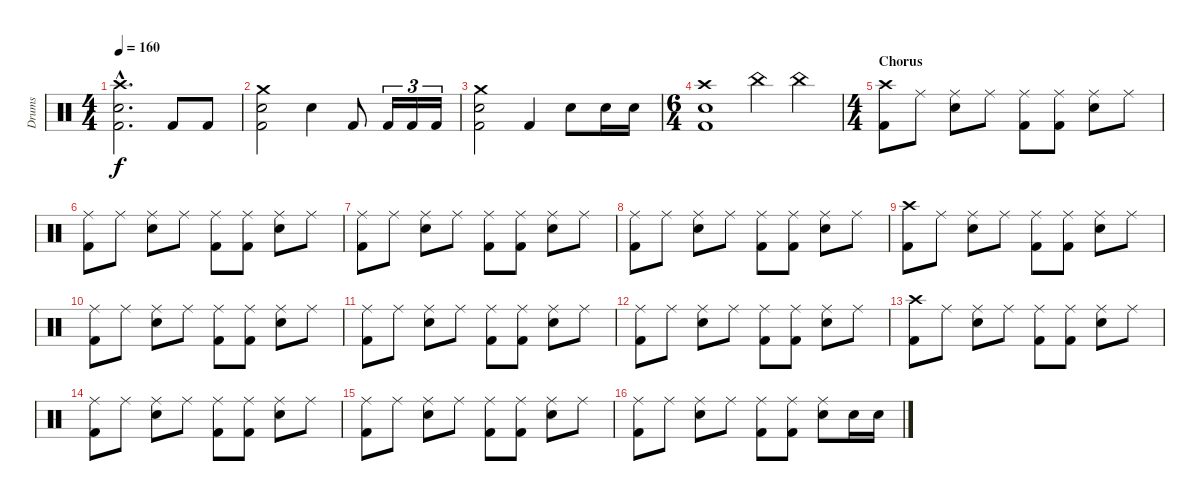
\track ("Drums" "Drums") {instrument percussion}
\staff {score}
\articulation defaults
\ts (4 4)
\tempo 160
\clef neutral
\ks c
("Crash high (hit)"{hac} "Kick (hit) 2"{hac} "Electric Snare (hit)"{hac}).2{d dy f} "Kick (hit) 2".8 "Kick (hit) 2".8 |
("Crash medium (hit)" "Kick (hit) 2" "Electric Snare (hit)").2 "Electric Snare (hit)".4 "Kick (hit) 2".8 "Kick (hit) 2".16{tu (3 2)} "Kick (hit) 2".16{tu (3 2)} "Kick (hit) 2".16{tu (3 2)} |
("Crash medium (hit)" "Kick (hit) 2" "Electric Snare (hit)").2 "Kick (hit) 2".4 "Electric Snare (hit)".8 "Electric Snare (hit)".16 "Electric Snare (hit)".16 |
\ts (6 4)
("Crash high (hit)" "Kick (hit) 2" "Electric Snare (hit)").1 "China (hit)".4 "China (hit)".4 |
\ts (4 4)
\section ("" "Chorus")
("Crash high (hit)" "Kick (hit) 2").8 "Ride (middle)".8 ("Ride (middle)" "Electric Snare (hit)").8 "Ride (middle)".8 ("Ride (middle)" "Kick (hit) 2").8 ("Ride (middle)" "Kick (hit) 2").8 ("Ride (middle)" "Electric Snare (hit)").8 "Ride (middle)".8 |
("Ride (middle)" "Kick (hit) 2").8 "Ride (middle)".8 ("Ride (middle)" "Electric Snare (hit)").8 "Ride (middle)".8 ("Ride (middle)" "Kick (hit) 2").8 ("Ride (middle)" "Kick (hit) 2").8 ("Ride (middle)" "Electric Snare (hit)").8 "Ride (middle)".8 |
("Ride (middle)" "Kick (hit) 2").8 "Ride (middle)".8 ("Ride (middle)" "Electric Snare (hit)").8 "Ride (middle)".8 ("Ride (middle)" "Kick (hit) 2").8 ("Ride (middle)" "Kick (hit) 2").8 ("Ride (middle)" "Electric Snare (hit)").8 "Ride (middle)".8 |
("Ride (middle)" "Kick (hit) 2").8 "Ride (middle)".8 ("Ride (middle)" "Electric Snare (hit)").8 "Ride (middle)".8 ("Ride (middle)" "Kick (hit) 2").8 ("Ride (middle)" "Kick (hit) 2").8 ("Ride (middle)" "Electric Snare (hit)").8 "Ride (middle)".8 |
("Crash high (hit)" "Kick (hit) 2").8 "Ride (middle)".8 ("Ride (middle)" "Electric Snare (hit)").8 "Ride (middle)".8 ("Ride (middle)" "Kick (hit) 2").8 ("Ride (middle)" "Kick (hit) 2").8 ("Ride (middle)" "Electric Snare (hit)").8 "Ride (middle)".8 |
("Ride (middle)" "Kick (hit) 2").8 "Ride (middle)".8 ("Ride (middle)" "Electric Snare (hit)").8 "Ride (middle)".8 ("Ride (middle)" "Kick (hit) 2").8 ("Ride (middle)" "Kick (hit) 2").8 ("Ride (middle)" "Electric Snare (hit)").8 "Ride (middle)".8 |
("Ride (middle)" "Kick (hit) 2").8 "Ride (middle)".8 ("Ride (middle)" "Electric Snare (hit)").8 "Ride (middle)".8 ("Ride (middle)" "Kick (hit) 2").8 ("Ride (middle)" "Kick (hit) 2").8 ("Ride (middle)" "Electric Snare (hit)").8 "Ride (middle)".8 |
("Ride (middle)" "Kick (hit) 2").8 "Ride (middle)".8 ("Ride (middle)" "Electric Snare (hit)").8 "Ride (middle)".8 ("Ride (middle)" "Kick (hit) 2").8 ("Ride (middle)" "Kick (hit) 2").8 ("Ride (middle)" "Electric Snare (hit)").8 "Ride (middle)".8 |
("Crash high (hit)" "Kick (hit) 2").8 "Ride (middle)".8 ("Ride (middle)" "Electric Snare (hit)").8 "Ride (middle)".8 ("Ride (middle)" "Kick (hit) 2").8 ("Ride (middle)" "Kick (hit) 2").8 ("Ride (middle)" "Electric Snare (hit)").8 "Ride (middle)".8 |
("Ride (middle)" "Kick (hit) 2").8 "Ride (middle)".8 ("Ride (middle)" "Electric Snare (hit)").8 "Ride (middle)".8 ("Ride (middle)" "Kick (hit) 2").8 ("Ride (middle)" "Kick (hit) 2").8 ("Ride (middle)" "Electric Snare (hit)").8 "Ride (middle)".8 |
("Ride (middle)" "Kick (hit) 2").8 "Ride (middle)".8 ("Ride (middle)" "Electric Snare (hit)").8 "Ride (middle)".8 ("Ride (middle)" "Kick (hit) 2").8 ("Ride (middle)" "Kick (hit) 2").8 ("Ride (middle)" "Electric Snare (hit)").8 "Ride (middle)".8 |
("Ride (middle)" "Kick (hit) 2").8 "Ride (middle)".8 ("Ride (middle)" "Electric Snare (hit)").8 "Ride (middle)".8 ("Ride (middle)" "Kick (hit) 2").8 ("Ride (middle)" "Kick (hit) 2").8 ("Ride (middle)" "Electric Snare (hit)").8 "Electric Snare (hit)".16 "Electric Snare (hit)".16
